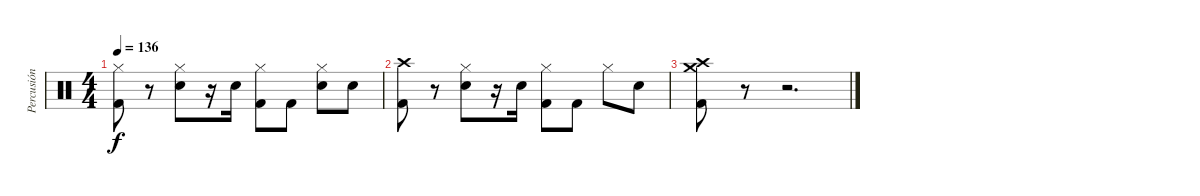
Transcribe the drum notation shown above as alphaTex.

\track ("Percusión" "Percusión") {instrument percussion}
\staff {score}
\articulation defaults
\ts (4 4)
\tempo 136
\clef neutral
\ks c
("Hi-Hat (closed)" "Kick (hit) 2").8{dy f} r.8 ("Hi-Hat (closed)" "Electric Snare (hit)").8 r.16 "Electric Snare (hit)".16 ("Hi-Hat (closed)" "Kick (hit) 2").8 "Kick (hit) 2".8 ("Hi-Hat (closed)" "Electric Snare (hit)").8 "Electric Snare (hit)".8 |
("Crash high (hit)" "Kick (hit) 2").8 r.8 ("Hi-Hat (closed)" "Electric Snare (hit)").8 r.16 "Electric Snare (hit)".16 ("Hi-Hat (closed)" "Kick (hit) 2").8 "Kick (hit) 2".8 "Hi-Hat (closed)".8 "Electric Snare (hit)".8 |
("Crash high (hit)" "Crash medium (hit)" "Kick (hit) 2").8 r.8 r.2{d}
